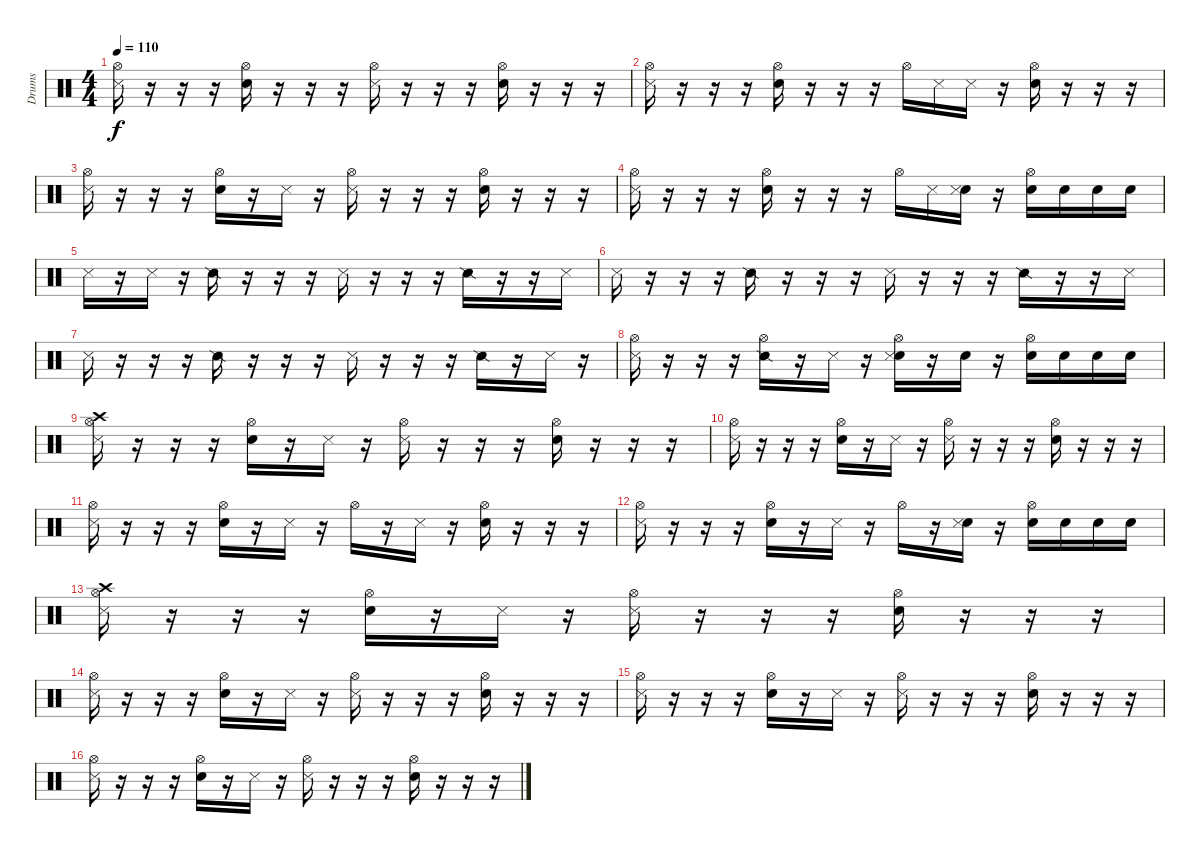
\track ("Drums" "Drums") {instrument percussion}
\staff {score}
\articulation defaults
\ts (4 4)
\tempo 110
\clef neutral
\ks c
("Hi-Hat (open)" "Metronome (hit)").16{dy f} r.16 r.16 r.16 ("Hi-Hat (open)" "Electric Snare (hit)").16 r.16 r.16 r.16 ("Hi-Hat (open)" "Metronome (hit)").16 r.16 r.16 r.16 ("Hi-Hat (open)" "Electric Snare (hit)").16 r.16 r.16 r.16 |
("Hi-Hat (open)" "Metronome (hit)").16 r.16 r.16 r.16 ("Hi-Hat (open)" "Electric Snare (hit)").16 r.16 r.16 r.16 "Hi-Hat (open)".16 "Metronome (hit)".16 "Metronome (hit)".16 r.16 ("Hi-Hat (open)" "Electric Snare (hit)").16 r.16 r.16 r.16 |
("Hi-Hat (open)" "Metronome (hit)").16 r.16 r.16 r.16 ("Hi-Hat (open)" "Electric Snare (hit)").16 r.16 "Metronome (hit)".16 r.16 ("Hi-Hat (open)" "Metronome (hit)").16 r.16 r.16 r.16 ("Hi-Hat (open)" "Electric Snare (hit)").16 r.16 r.16 r.16 |
("Hi-Hat (open)" "Metronome (hit)").16 r.16 r.16 r.16 ("Hi-Hat (open)" "Electric Snare (hit)").16 r.16 r.16 r.16 "Hi-Hat (open)".16 "Metronome (hit)".16 ("Electric Snare (hit)" "Metronome (hit)").16 r.16 ("Hi-Hat (open)" "Electric Snare (hit)").16 "Electric Snare (hit)".16 "Electric Snare (hit)".16 "Electric Snare (hit)".16 |
"Metronome (hit)".16 r.16 "Metronome (hit)".16 r.16 "Snare (side stick) 2".16 r.16 r.16 r.16 "Metronome (hit)".16 r.16 r.16 r.16 "Snare (side stick) 2".16 r.16 r.16 "Metronome (hit)".16 |
"Metronome (hit)".16 r.16 r.16 r.16 "Snare (side stick) 2".16 r.16 r.16 r.16 "Metronome (hit)".16 r.16 r.16 r.16 "Snare (side stick) 2".16 r.16 r.16 "Metronome (hit)".16 |
"Metronome (hit)".16 r.16 r.16 r.16 "Snare (side stick) 2".16 r.16 r.16 r.16 "Metronome (hit)".16 r.16 r.16 r.16 "Snare (side stick) 2".16 r.16 "Metronome (hit)".16 r.16 |
("Hi-Hat (open)" "Metronome (hit)").16 r.16 r.16 r.16 ("Hi-Hat (open)" "Snare (side stick) 2").16 r.16 "Metronome (hit)".16 r.16 ("Hi-Hat (open)" "Metronome (bell)" "Metronome (hit)").16 r.16 "Metronome (bell)".16 r.16 ("Hi-Hat (open)" "Metronome (bell)").16 "Metronome (bell)".16 "Metronome (bell)".16 "Metronome (bell)".16 |
("Hi-Hat (open)" "Crash high (hit)" "Metronome (hit)").16 r.16 r.16 r.16 ("Hi-Hat (open)" "Electric Snare (hit)").16 r.16 "Metronome (hit)".16 r.16 ("Hi-Hat (open)" "Metronome (hit)").16 r.16 r.16 r.16 ("Hi-Hat (open)" "Electric Snare (hit)").16 r.16 r.16 r.16 |
("Hi-Hat (open)" "Metronome (hit)").16 r.16 r.16 r.16 ("Hi-Hat (open)" "Electric Snare (hit)").16 r.16 "Metronome (hit)".16 r.16 ("Hi-Hat (open)" "Metronome (hit)").16 r.16 r.16 r.16 ("Hi-Hat (open)" "Electric Snare (hit)").16 r.16 r.16 r.16 |
("Hi-Hat (open)" "Metronome (hit)").16 r.16 r.16 r.16 ("Hi-Hat (open)" "Electric Snare (hit)").16 r.16 "Metronome (hit)".16 r.16 "Hi-Hat (open)".16 r.16 "Metronome (hit)".16 r.16 ("Hi-Hat (open)" "Electric Snare (hit)").16 r.16 r.16 r.16 |
("Hi-Hat (open)" "Metronome (hit)").16 r.16 r.16 r.16 ("Hi-Hat (open)" "Electric Snare (hit)").16 r.16 "Metronome (hit)".16 r.16 "Hi-Hat (open)".16 r.16 ("Electric Snare (hit)" "Metronome (hit)").16 r.16 ("Hi-Hat (open)" "Electric Snare (hit)").16 "Electric Snare (hit)".16 "Electric Snare (hit)".16 "Electric Snare (hit)".16 |
("Hi-Hat (open)" "Crash high (hit)" "Metronome (hit)").16 r.16 r.16 r.16 ("Hi-Hat (open)" "Electric Snare (hit)").16 r.16 "Metronome (hit)".16 r.16 ("Hi-Hat (open)" "Metronome (hit)").16 r.16 r.16 r.16 ("Hi-Hat (open)" "Electric Snare (hit)").16 r.16 r.16 r.16 |
("Hi-Hat (open)" "Metronome (hit)").16 r.16 r.16 r.16 ("Hi-Hat (open)" "Electric Snare (hit)").16 r.16 "Metronome (hit)".16 r.16 ("Hi-Hat (open)" "Metronome (hit)").16 r.16 r.16 r.16 ("Hi-Hat (open)" "Electric Snare (hit)").16 r.16 r.16 r.16 |
("Hi-Hat (open)" "Metronome (hit)").16 r.16 r.16 r.16 ("Hi-Hat (open)" "Electric Snare (hit)").16 r.16 "Metronome (hit)".16 r.16 ("Hi-Hat (open)" "Metronome (hit)").16 r.16 r.16 r.16 ("Hi-Hat (open)" "Electric Snare (hit)").16 r.16 r.16 r.16 |
("Hi-Hat (open)" "Metronome (hit)").16 r.16 r.16 r.16 ("Hi-Hat (open)" "Electric Snare (hit)").16 r.16 "Metronome (hit)".16 r.16 ("Hi-Hat (open)" "Metronome (hit)").16 r.16 r.16 r.16 ("Hi-Hat (open)" "Electric Snare (hit)").16 r.16 r.16 r.16
